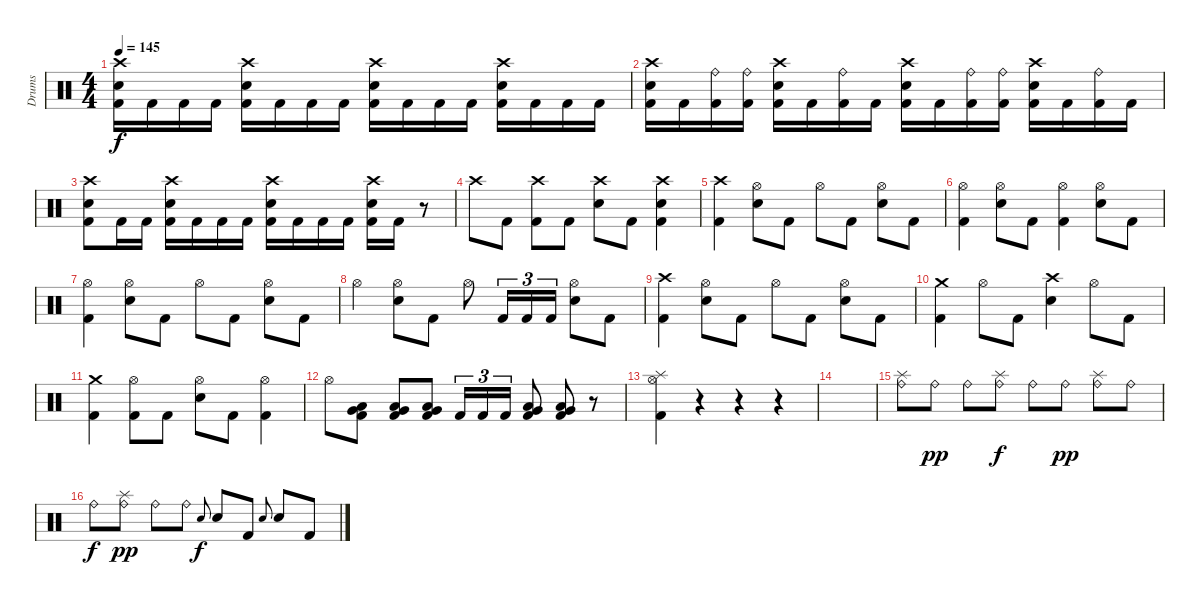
\track ("Drums" "Drums") {instrument percussion}
\staff {score}
\articulation defaults
\ts (4 4)
\tempo 145
\clef neutral
\ks c
("Crash high (hit)" "Electric Snare (hit)" "Kick (hit) 2").16{dy f} "Kick (hit) 2".16 "Kick (hit) 2".16 "Kick (hit) 2".16 ("Crash high (hit)" "Electric Snare (hit)" "Kick (hit) 2").16 "Kick (hit) 2".16 "Kick (hit) 2".16 "Kick (hit) 2".16 ("Crash high (hit)" "Electric Snare (hit)" "Kick (hit) 2").16 "Kick (hit) 2".16 "Kick (hit) 2".16 "Kick (hit) 2".16 ("Crash high (hit)" "Electric Snare (hit)" "Kick (hit) 2").16 "Kick (hit) 2".16 "Kick (hit) 2".16 "Kick (hit) 2".16 |
("Crash high (hit)" "Electric Snare (hit)" "Kick (hit) 2").16 "Kick (hit) 2".16 ("Ride (bell)" "Kick (hit) 2").16 ("Ride (bell)" "Kick (hit) 2").16 ("Crash high (hit)" "Electric Snare (hit)" "Kick (hit) 2").16 "Kick (hit) 2".16 ("Ride (bell)" "Kick (hit) 2").16 "Kick (hit) 2".16 ("Crash high (hit)" "Electric Snare (hit)" "Kick (hit) 2").16 "Kick (hit) 2".16 ("Ride (bell)" "Kick (hit) 2").16 ("Ride (bell)" "Kick (hit) 2").16 ("Crash high (hit)" "Electric Snare (hit)" "Kick (hit) 2").16 "Kick (hit) 2".16 ("Ride (bell)" "Kick (hit) 2").16 "Kick (hit) 2".16 |
("Crash high (hit)" "Electric Snare (hit)" "Kick (hit) 2").8 "Kick (hit) 2".16 "Kick (hit) 2".16 ("Crash high (hit)" "Electric Snare (hit)" "Kick (hit) 2").16 "Kick (hit) 2".16 "Kick (hit) 2".16 "Kick (hit) 2".16 ("Crash high (hit)" "Electric Snare (hit)" "Kick (hit) 2").16 "Kick (hit) 2".16 "Kick (hit) 2".16 "Kick (hit) 2".16 ("Crash high (hit)" "Electric Snare (hit)" "Kick (hit) 2").16 "Kick (hit) 2".16 r.8 |
"Crash high (hit)".8 "Kick (hit) 2".8 ("Crash high (hit)" "Kick (hit) 2").8 "Kick (hit) 2".8 ("Crash high (hit)" "Electric Snare (hit)").8 "Kick (hit) 2".8 ("Crash high (hit)" "Electric Snare (hit)" "Kick (hit) 2").4 |
("Crash high (hit)" "Kick (hit) 2").4 ("Hi-Hat (open)" "Electric Snare (hit)").8 "Kick (hit) 2".8 "Hi-Hat (open)".8 "Kick (hit) 2".8 ("Hi-Hat (open)" "Electric Snare (hit)").8 "Kick (hit) 2".8 |
("Hi-Hat (open)" "Kick (hit) 2").4 ("Hi-Hat (open)" "Electric Snare (hit)").8 "Kick (hit) 2".8 ("Hi-Hat (open)" "Kick (hit) 2").4 ("Hi-Hat (open)" "Electric Snare (hit)").8 "Kick (hit) 2".8 |
("Hi-Hat (open)" "Kick (hit) 2").4 ("Hi-Hat (open)" "Electric Snare (hit)").8 "Kick (hit) 2".8 "Hi-Hat (open)".8 "Kick (hit) 2".8 ("Hi-Hat (open)" "Electric Snare (hit)").8 "Kick (hit) 2".8 |
"Hi-Hat (open)".4 ("Hi-Hat (open)" "Electric Snare (hit)").8 "Kick (hit) 2".8 "Hi-Hat (open)".8 "Kick (hit) 2".16{tu (3 2)} "Kick (hit) 2".16{tu (3 2)} "Kick (hit) 2".16{tu (3 2)} ("Hi-Hat (open)" "Electric Snare (hit)").8 "Kick (hit) 2".8 |
("Crash high (hit)" "Kick (hit) 2").4 ("Hi-Hat (open)" "Electric Snare (hit)").8 "Kick (hit) 2".8 "Hi-Hat (open)".8 "Kick (hit) 2".8 ("Hi-Hat (open)" "Electric Snare (hit)").8 "Kick (hit) 2".8 |
("Crash medium (hit)" "Kick (hit) 2").4 "Hi-Hat (open)".8 "Kick (hit) 2".8 ("Crash high (hit)" "Electric Snare (hit)").4 "Hi-Hat (open)".8 "Kick (hit) 2".8 |
("Crash medium (hit)" "Kick (hit) 2").4 ("Hi-Hat (open)" "Kick (hit) 2").8 "Kick (hit) 2".8 ("Hi-Hat (open)" "Electric Snare (hit)").8 "Kick (hit) 2".8 ("Hi-Hat (open)" "Kick (hit) 2").4 |
"Hi-Hat (open)".8 ("Very Low Tom (hit)" "Low Floor Tom (hit)" "Kick (hit) 2").8 ("Very Low Tom (hit)" "Low Floor Tom (hit)" "Kick (hit) 2").8 ("Very Low Tom (hit)" "Low Floor Tom (hit)" "Kick (hit) 2").8 "Kick (hit) 2".16{tu (3 2)} "Kick (hit) 2".16{tu (3 2)} "Kick (hit) 2".16{tu (3 2)} ("Very Low Tom (hit)" "Low Floor Tom (hit)" "Kick (hit) 2").8 ("Very Low Tom (hit)" "Low Floor Tom (hit)" "Kick (hit) 2").8 r.8 |
("Splash (hit)" "Hi-Hat (open)" "Kick (hit) 2").4 r.4 r.4 r.4 |
|
("Splash (hit)" "Ride (bell)").8 "Ride (bell)".8{dy pp} "Ride (bell)".8 ("Splash (hit)" "Ride (bell)").8{dy f} "Ride (bell)".8 "Ride (bell)".8{dy pp} ("Splash (hit)" "Ride (bell)").8 "Ride (bell)".8 |
"Ride (bell)".8{dy f} ("Splash (hit)" "Ride (bell)").8{dy pp} "Ride (bell)".8 "Ride (bell)".8 "Electric Snare (hit)".8{gr onbeat dy f} "Electric Snare (hit)".8 "Kick (hit) 2".8 "Electric Snare (hit)".8{gr onbeat} "Electric Snare (hit)".8 "Kick (hit) 2".8
